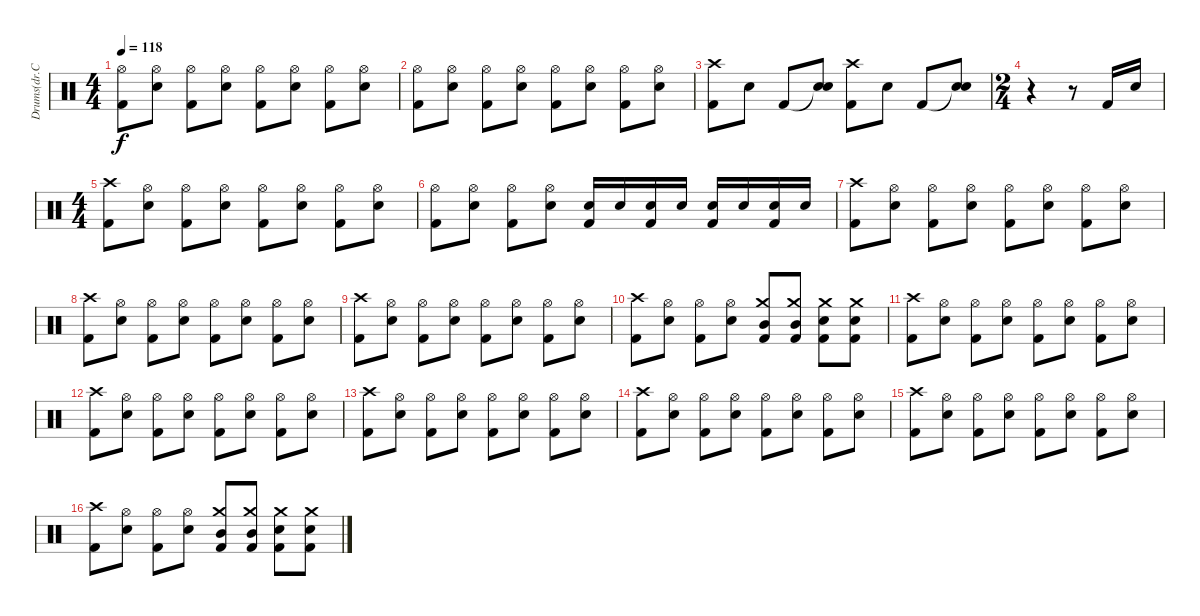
\track ("Drums(dr.Chud)" "Drums(dr.C") {instrument percussion}
\staff {score}
\articulation defaults
\ts (4 4)
\tempo 118
\clef neutral
\ks c
("Hi-Hat (open)" "Kick (hit) 2").8{dy f} ("Hi-Hat (open)" "Electric Snare (hit)").8 ("Hi-Hat (open)" "Kick (hit) 2").8 ("Hi-Hat (open)" "Electric Snare (hit)").8 ("Hi-Hat (open)" "Kick (hit) 2").8 ("Hi-Hat (open)" "Electric Snare (hit)").8 ("Hi-Hat (open)" "Kick (hit) 2").8 ("Hi-Hat (open)" "Electric Snare (hit)").8 |
("Hi-Hat (open)" "Kick (hit) 2").8 ("Hi-Hat (open)" "Electric Snare (hit)").8 ("Hi-Hat (open)" "Kick (hit) 2").8 ("Hi-Hat (open)" "Electric Snare (hit)").8 ("Hi-Hat (open)" "Kick (hit) 2").8 ("Hi-Hat (open)" "Electric Snare (hit)").8 ("Hi-Hat (open)" "Kick (hit) 2").8 ("Hi-Hat (open)" "Electric Snare (hit)").8 |
("Crash high (hit)" "Kick (hit) 2").8 "Electric Snare (hit)".8 "Kick (hit) 2".8 ("Snare (hit)"{t} "Electric Snare (hit)").8 ("Crash high (hit)" "Kick (hit) 2").8 "Electric Snare (hit)".8 "Kick (hit) 2".8 ("Snare (hit)"{t} "Electric Snare (hit)").8 |
\ts (2 4)
r.4 r.8 "Kick (hit) 2".16 "Electric Snare (hit)".16 |
\ts (4 4)
("Crash high (hit)" "Kick (hit) 2").8 ("Hi-Hat (open)" "Electric Snare (hit)").8 ("Hi-Hat (open)" "Kick (hit) 2").8 ("Hi-Hat (open)" "Electric Snare (hit)").8 ("Hi-Hat (open)" "Kick (hit) 2").8 ("Hi-Hat (open)" "Electric Snare (hit)").8 ("Hi-Hat (open)" "Kick (hit) 2").8 ("Hi-Hat (open)" "Electric Snare (hit)").8 |
("Hi-Hat (open)" "Kick (hit) 2").8 ("Hi-Hat (open)" "Electric Snare (hit)").8 ("Hi-Hat (open)" "Kick (hit) 2").8 ("Hi-Hat (open)" "Electric Snare (hit)").8 ("Electric Snare (hit)" "Kick (hit) 2").16 "Electric Snare (hit)".16 ("Electric Snare (hit)" "Kick (hit) 2").16 "Electric Snare (hit)".16 ("Electric Snare (hit)" "Kick (hit) 2").16 "Electric Snare (hit)".16 ("Electric Snare (hit)" "Kick (hit) 2").16 "Electric Snare (hit)".16 |
("Crash high (hit)" "Kick (hit) 2").8 ("Hi-Hat (open)" "Electric Snare (hit)").8 ("Hi-Hat (open)" "Kick (hit) 2").8 ("Hi-Hat (open)" "Electric Snare (hit)").8 ("Hi-Hat (open)" "Kick (hit) 2").8 ("Hi-Hat (open)" "Electric Snare (hit)").8 ("Hi-Hat (open)" "Kick (hit) 2").8 ("Hi-Hat (open)" "Electric Snare (hit)").8 |
("Crash high (hit)" "Kick (hit) 2").8 ("Hi-Hat (open)" "Electric Snare (hit)").8 ("Hi-Hat (open)" "Kick (hit) 2").8 ("Hi-Hat (open)" "Electric Snare (hit)").8 ("Hi-Hat (open)" "Kick (hit) 2").8 ("Hi-Hat (open)" "Electric Snare (hit)").8 ("Hi-Hat (open)" "Kick (hit) 2").8 ("Hi-Hat (open)" "Electric Snare (hit)").8 |
("Crash high (hit)" "Kick (hit) 2").8 ("Hi-Hat (open)" "Electric Snare (hit)").8 ("Hi-Hat (open)" "Kick (hit) 2").8 ("Hi-Hat (open)" "Electric Snare (hit)").8 ("Hi-Hat (open)" "Kick (hit) 2").8 ("Hi-Hat (open)" "Electric Snare (hit)").8 ("Hi-Hat (open)" "Kick (hit) 2").8 ("Hi-Hat (open)" "Electric Snare (hit)").8 |
("Crash high (hit)" "Kick (hit) 2").8 ("Hi-Hat (open)" "Electric Snare (hit)").8 ("Hi-Hat (open)" "Kick (hit) 2").8 ("Hi-Hat (open)" "Electric Snare (hit)").8 ("Crash medium (hit)" "Mid Tom (hit)" "Kick (hit) 2").8 ("Crash medium (hit)" "Mid Tom (hit)" "Kick (hit) 2").8 ("Crash medium (hit)" "Electric Snare (hit)" "Kick (hit) 2").8 ("Crash medium (hit)" "Electric Snare (hit)" "Kick (hit) 2").8 |
("Crash high (hit)" "Kick (hit) 2").8 ("Hi-Hat (open)" "Electric Snare (hit)").8 ("Hi-Hat (open)" "Kick (hit) 2").8 ("Hi-Hat (open)" "Electric Snare (hit)").8 ("Hi-Hat (open)" "Kick (hit) 2").8 ("Hi-Hat (open)" "Electric Snare (hit)").8 ("Hi-Hat (open)" "Kick (hit) 2").8 ("Hi-Hat (open)" "Electric Snare (hit)").8 |
("Crash high (hit)" "Kick (hit) 2").8 ("Hi-Hat (open)" "Electric Snare (hit)").8 ("Hi-Hat (open)" "Kick (hit) 2").8 ("Hi-Hat (open)" "Electric Snare (hit)").8 ("Hi-Hat (open)" "Kick (hit) 2").8 ("Hi-Hat (open)" "Electric Snare (hit)").8 ("Hi-Hat (open)" "Kick (hit) 2").8 ("Hi-Hat (open)" "Electric Snare (hit)").8 |
("Crash high (hit)" "Kick (hit) 2").8 ("Hi-Hat (open)" "Electric Snare (hit)").8 ("Hi-Hat (open)" "Kick (hit) 2").8 ("Hi-Hat (open)" "Electric Snare (hit)").8 ("Hi-Hat (open)" "Kick (hit) 2").8 ("Hi-Hat (open)" "Electric Snare (hit)").8 ("Hi-Hat (open)" "Kick (hit) 2").8 ("Hi-Hat (open)" "Electric Snare (hit)").8 |
("Crash high (hit)" "Kick (hit) 2").8 ("Hi-Hat (open)" "Electric Snare (hit)").8 ("Hi-Hat (open)" "Kick (hit) 2").8 ("Hi-Hat (open)" "Electric Snare (hit)").8 ("Hi-Hat (open)" "Kick (hit) 2").8 ("Hi-Hat (open)" "Electric Snare (hit)").8 ("Hi-Hat (open)" "Kick (hit) 2").8 ("Hi-Hat (open)" "Electric Snare (hit)").8 |
("Crash high (hit)" "Kick (hit) 2").8 ("Hi-Hat (open)" "Electric Snare (hit)").8 ("Hi-Hat (open)" "Kick (hit) 2").8 ("Hi-Hat (open)" "Electric Snare (hit)").8 ("Hi-Hat (open)" "Kick (hit) 2").8 ("Hi-Hat (open)" "Electric Snare (hit)").8 ("Hi-Hat (open)" "Kick (hit) 2").8 ("Hi-Hat (open)" "Electric Snare (hit)").8 |
("Crash high (hit)" "Kick (hit) 2").8 ("Hi-Hat (open)" "Electric Snare (hit)").8 ("Hi-Hat (open)" "Kick (hit) 2").8 ("Hi-Hat (open)" "Electric Snare (hit)").8 ("Crash medium (hit)" "Mid Tom (hit)" "Kick (hit) 2").8 ("Crash medium (hit)" "Mid Tom (hit)" "Kick (hit) 2").8 ("Crash medium (hit)" "Electric Snare (hit)" "Kick (hit) 2").8 ("Crash medium (hit)" "Electric Snare (hit)" "Kick (hit) 2").8
